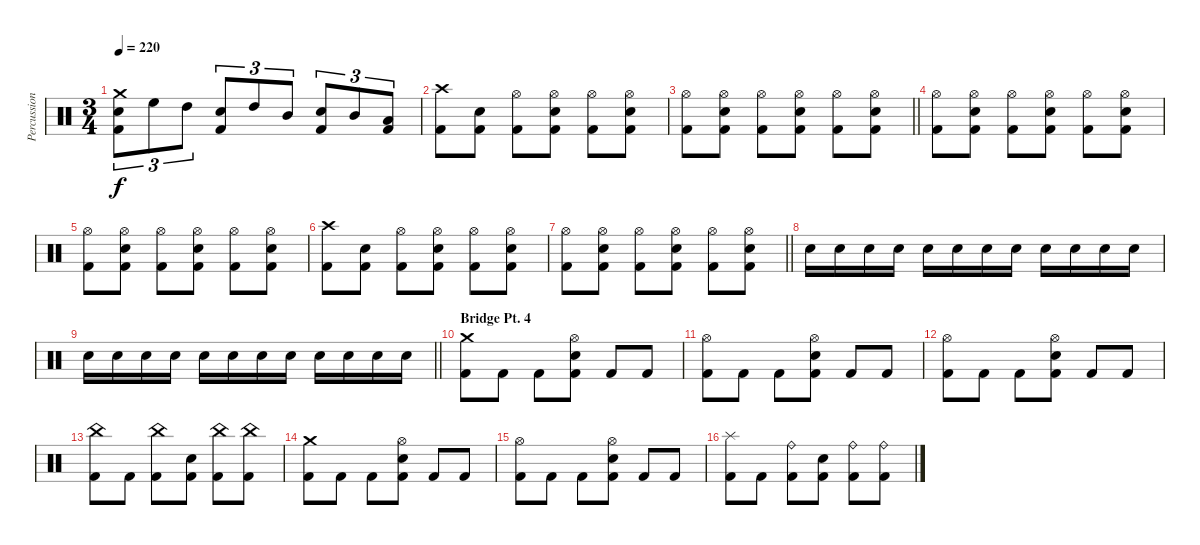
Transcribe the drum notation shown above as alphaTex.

\track ("Percussion" "Percussion") {instrument percussion}
\staff {score}
\articulation defaults
\ts (3 4)
\tempo 220
\clef neutral
\ks c
("Crash medium (hit)" "Electric Snare (hit)" "Kick (hit) 2").8{tu (3 2) dy f} "High Floor Tom (hit)".8{tu (3 2)} "High Tom (hit)".8{tu (3 2)} ("Electric Snare (hit)" "Kick (hit) 2").8{tu (3 2)} "High Tom (hit)".8{tu (3 2)} "Mid Tom (hit)".8{tu (3 2)} ("Electric Snare (hit)" "Kick (hit) 2").8{tu (3 2)} "Mid Tom (hit)".8{tu (3 2)} ("Low Tom (hit)" "Kick (hit) 2").8{tu (3 2)} |
("Crash high (hit)" "Kick (hit) 2").8 ("Electric Snare (hit)" "Kick (hit) 2").8 ("Hi-Hat (open)" "Kick (hit) 2").8 ("Hi-Hat (open)" "Electric Snare (hit)" "Kick (hit) 2").8 ("Hi-Hat (open)" "Kick (hit) 2").8 ("Hi-Hat (open)" "Electric Snare (hit)" "Kick (hit) 2").8 |
\barLineRight lightlight
("Hi-Hat (open)" "Kick (hit) 2").8 ("Hi-Hat (open)" "Electric Snare (hit)" "Kick (hit) 2").8 ("Hi-Hat (open)" "Kick (hit) 2").8 ("Hi-Hat (open)" "Electric Snare (hit)" "Kick (hit) 2").8 ("Hi-Hat (open)" "Kick (hit) 2").8 ("Hi-Hat (open)" "Electric Snare (hit)" "Kick (hit) 2").8 |
("Hi-Hat (open)" "Kick (hit) 2").8 ("Hi-Hat (open)" "Electric Snare (hit)" "Kick (hit) 2").8 ("Hi-Hat (open)" "Kick (hit) 2").8 ("Hi-Hat (open)" "Electric Snare (hit)" "Kick (hit) 2").8 ("Hi-Hat (open)" "Kick (hit) 2").8 ("Hi-Hat (open)" "Electric Snare (hit)" "Kick (hit) 2").8 |
("Hi-Hat (open)" "Kick (hit) 2").8 ("Hi-Hat (open)" "Electric Snare (hit)" "Kick (hit) 2").8 ("Hi-Hat (open)" "Kick (hit) 2").8 ("Hi-Hat (open)" "Electric Snare (hit)" "Kick (hit) 2").8 ("Hi-Hat (open)" "Kick (hit) 2").8 ("Hi-Hat (open)" "Electric Snare (hit)" "Kick (hit) 2").8 |
("Crash high (hit)" "Kick (hit) 2").8 ("Electric Snare (hit)" "Kick (hit) 2").8 ("Hi-Hat (open)" "Kick (hit) 2").8 ("Hi-Hat (open)" "Electric Snare (hit)" "Kick (hit) 2").8 ("Hi-Hat (open)" "Kick (hit) 2").8 ("Hi-Hat (open)" "Electric Snare (hit)" "Kick (hit) 2").8 |
\barLineRight lightlight
("Hi-Hat (open)" "Kick (hit) 2").8 ("Hi-Hat (open)" "Electric Snare (hit)" "Kick (hit) 2").8 ("Hi-Hat (open)" "Kick (hit) 2").8 ("Hi-Hat (open)" "Electric Snare (hit)" "Kick (hit) 2").8 ("Hi-Hat (open)" "Kick (hit) 2").8 ("Hi-Hat (open)" "Electric Snare (hit)" "Kick (hit) 2").8 |
"Electric Snare (hit)".16 "Electric Snare (hit)".16 "Electric Snare (hit)".16 "Electric Snare (hit)".16 "Electric Snare (hit)".16 "Electric Snare (hit)".16 "Electric Snare (hit)".16 "Electric Snare (hit)".16 "Electric Snare (hit)".16 "Electric Snare (hit)".16 "Electric Snare (hit)".16 "Electric Snare (hit)".16 |
\barLineRight lightlight "Electric Snare (hit)".16 "Electric Snare (hit)".16 "Electric Snare (hit)".16 "Electric Snare (hit)".16 "Electric Snare (hit)".16 "Electric Snare (hit)".16 "Electric Snare (hit)".16 "Electric Snare (hit)".16 "Electric Snare (hit)".16 "Electric Snare (hit)".16 "Electric Snare (hit)".16 "Electric Snare (hit)".16
|
\section ("" "Bridge Pt. 4")
("Crash medium (hit)" "Kick (hit) 2").8 "Kick (hit) 2".8 "Kick (hit) 2".8 ("Hi-Hat (open)" "Electric Snare (hit)" "Kick (hit) 2").8 "Kick (hit) 2".8 "Kick (hit) 2".8 |
("Hi-Hat (open)" "Kick (hit) 2").8 "Kick (hit) 2".8 "Kick (hit) 2".8 ("Hi-Hat (open)" "Electric Snare (hit)" "Kick (hit) 2").8 "Kick (hit) 2".8 "Kick (hit) 2".8 |
("Hi-Hat (open)" "Kick (hit) 2").8 "Kick (hit) 2".8 "Kick (hit) 2".8 ("Hi-Hat (open)" "Electric Snare (hit)" "Kick (hit) 2").8 "Kick (hit) 2".8 "Kick (hit) 2".8 |
("China (hit)" "Kick (hit) 2").8 "Kick (hit) 2".8 ("China (hit)" "Kick (hit) 2").8 ("Electric Snare (hit)" "Kick (hit) 2").8 ("China (hit)" "Kick (hit) 2").8 ("China (hit)" "Kick (hit) 2").8 |
("Crash medium (hit)" "Kick (hit) 2").8 "Kick (hit) 2".8 "Kick (hit) 2".8 ("Hi-Hat (open)" "Electric Snare (hit)" "Kick (hit) 2").8 "Kick (hit) 2".8 "Kick (hit) 2".8 |
("Hi-Hat (open)" "Kick (hit) 2").8 "Kick (hit) 2".8 "Kick (hit) 2".8 ("Hi-Hat (open)" "Electric Snare (hit)" "Kick (hit) 2").8 "Kick (hit) 2".8 "Kick (hit) 2".8 |
("Splash (hit)" "Kick (hit) 2").8 "Kick (hit) 2".8 ("Ride (bell)" "Kick (hit) 2").8 ("Electric Snare (hit)" "Kick (hit) 2").8 ("Ride (bell)" "Kick (hit) 2").8 ("Ride (bell)" "Kick (hit) 2").8
